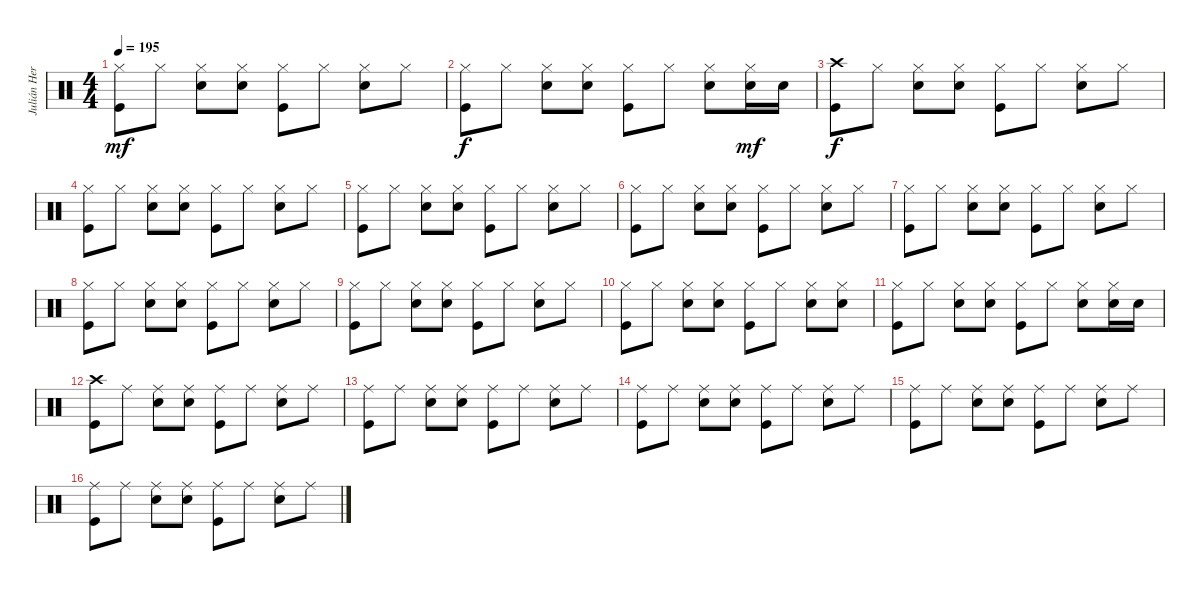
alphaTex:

\track ("Julián Hernandez" "Julián Her") {instrument percussion}
\staff {score}
\articulation defaults
\ts (4 4)
\tempo 195
\clef neutral
\ks c
("Hi-Hat (closed)" "Kick (hit)").8{dy mf} "Hi-Hat (closed)".8 ("Hi-Hat (closed)" "Electric Snare (hit)").8 ("Hi-Hat (closed)" "Electric Snare (hit)").8 ("Hi-Hat (closed)" "Kick (hit)").8 "Hi-Hat (closed)".8 ("Hi-Hat (closed)" "Electric Snare (hit)").8 "Hi-Hat (closed)".8 |
("Hi-Hat (closed)" "Kick (hit)").8{dy f} "Hi-Hat (closed)".8 ("Hi-Hat (closed)" "Electric Snare (hit)").8 ("Hi-Hat (closed)" "Electric Snare (hit)").8 ("Hi-Hat (closed)" "Kick (hit)").8 "Hi-Hat (closed)".8 ("Hi-Hat (closed)" "Electric Snare (hit)").8 ("Hi-Hat (closed)" "Electric Snare (hit)").16{dy mf} "Electric Snare (hit)".16 |
("Crash high (hit)" "Kick (hit)").8{dy f} "Hi-Hat (closed)".8 ("Hi-Hat (closed)" "Electric Snare (hit)").8 ("Hi-Hat (closed)" "Electric Snare (hit)").8 ("Hi-Hat (closed)" "Kick (hit)").8 "Hi-Hat (closed)".8 ("Hi-Hat (closed)" "Electric Snare (hit)").8 "Hi-Hat (closed)".8 |
("Hi-Hat (closed)" "Kick (hit)").8 "Hi-Hat (closed)".8 ("Hi-Hat (closed)" "Electric Snare (hit)").8 ("Hi-Hat (closed)" "Electric Snare (hit)").8 ("Hi-Hat (closed)" "Kick (hit)").8 "Hi-Hat (closed)".8 ("Hi-Hat (closed)" "Electric Snare (hit)").8 "Hi-Hat (closed)".8 |
("Hi-Hat (closed)" "Kick (hit)").8 "Hi-Hat (closed)".8 ("Hi-Hat (closed)" "Electric Snare (hit)").8 ("Hi-Hat (closed)" "Electric Snare (hit)").8 ("Hi-Hat (closed)" "Kick (hit)").8 "Hi-Hat (closed)".8 ("Hi-Hat (closed)" "Electric Snare (hit)").8 "Hi-Hat (closed)".8 |
("Hi-Hat (closed)" "Kick (hit)").8 "Hi-Hat (closed)".8 ("Hi-Hat (closed)" "Electric Snare (hit)").8 ("Hi-Hat (closed)" "Electric Snare (hit)").8 ("Hi-Hat (closed)" "Kick (hit)").8 "Hi-Hat (closed)".8 ("Hi-Hat (closed)" "Electric Snare (hit)").8 "Hi-Hat (closed)".8 |
("Hi-Hat (closed)" "Kick (hit)").8 "Hi-Hat (closed)".8 ("Hi-Hat (closed)" "Electric Snare (hit)").8 ("Hi-Hat (closed)" "Electric Snare (hit)").8 ("Hi-Hat (closed)" "Kick (hit)").8 "Hi-Hat (closed)".8 ("Hi-Hat (closed)" "Electric Snare (hit)").8 "Hi-Hat (closed)".8 |
("Hi-Hat (closed)" "Kick (hit)").8 "Hi-Hat (closed)".8 ("Hi-Hat (closed)" "Electric Snare (hit)").8 ("Hi-Hat (closed)" "Electric Snare (hit)").8 ("Hi-Hat (closed)" "Kick (hit)").8 "Hi-Hat (closed)".8 ("Hi-Hat (closed)" "Electric Snare (hit)").8 "Hi-Hat (closed)".8 |
("Hi-Hat (closed)" "Kick (hit)").8 "Hi-Hat (closed)".8 ("Hi-Hat (closed)" "Electric Snare (hit)").8 ("Hi-Hat (closed)" "Electric Snare (hit)").8 ("Hi-Hat (closed)" "Kick (hit)").8 "Hi-Hat (closed)".8 ("Hi-Hat (closed)" "Electric Snare (hit)").8 "Hi-Hat (closed)".8 |
("Hi-Hat (closed)" "Kick (hit)").8 "Hi-Hat (closed)".8 ("Hi-Hat (closed)" "Electric Snare (hit)").8 ("Hi-Hat (closed)" "Electric Snare (hit)").8 ("Hi-Hat (closed)" "Kick (hit)").8 "Hi-Hat (closed)".8 ("Hi-Hat (closed)" "Electric Snare (hit)").8 ("Hi-Hat (closed)" "Electric Snare (hit)").8 |
("Hi-Hat (closed)" "Kick (hit)").8 "Hi-Hat (closed)".8 ("Hi-Hat (closed)" "Electric Snare (hit)").8 ("Hi-Hat (closed)" "Electric Snare (hit)").8 ("Hi-Hat (closed)" "Kick (hit)").8 "Hi-Hat (closed)".8 ("Hi-Hat (closed)" "Electric Snare (hit)").8 ("Hi-Hat (closed)" "Electric Snare (hit)").16 "Electric Snare (hit)".16 |
("Crash high (hit)" "Kick (hit)").8 "Ride (middle)".8 ("Ride (middle)" "Electric Snare (hit)").8 ("Ride (middle)" "Electric Snare (hit)").8 ("Ride (middle)" "Kick (hit)").8 "Ride (middle)".8 ("Ride (middle)" "Electric Snare (hit)").8 "Ride (middle)".8 |
("Ride (middle)" "Kick (hit)").8 "Ride (middle)".8 ("Ride (middle)" "Electric Snare (hit)").8 ("Ride (middle)" "Electric Snare (hit)").8 ("Ride (middle)" "Kick (hit)").8 "Ride (middle)".8 ("Ride (middle)" "Electric Snare (hit)").8 "Ride (middle)".8 |
("Ride (middle)" "Kick (hit)").8 "Ride (middle)".8 ("Ride (middle)" "Electric Snare (hit)").8 ("Ride (middle)" "Electric Snare (hit)").8 ("Ride (middle)" "Kick (hit)").8 "Ride (middle)".8 ("Ride (middle)" "Electric Snare (hit)").8 "Ride (middle)".8 |
("Ride (middle)" "Kick (hit)").8 "Ride (middle)".8 ("Ride (middle)" "Electric Snare (hit)").8 ("Ride (middle)" "Electric Snare (hit)").8 ("Ride (middle)" "Kick (hit)").8 "Ride (middle)".8 ("Ride (middle)" "Electric Snare (hit)").8 "Ride (middle)".8 |
("Ride (middle)" "Kick (hit)").8 "Ride (middle)".8 ("Ride (middle)" "Electric Snare (hit)").8 ("Ride (middle)" "Electric Snare (hit)").8 ("Ride (middle)" "Kick (hit)").8 "Ride (middle)".8 ("Ride (middle)" "Electric Snare (hit)").8 "Ride (middle)".8
